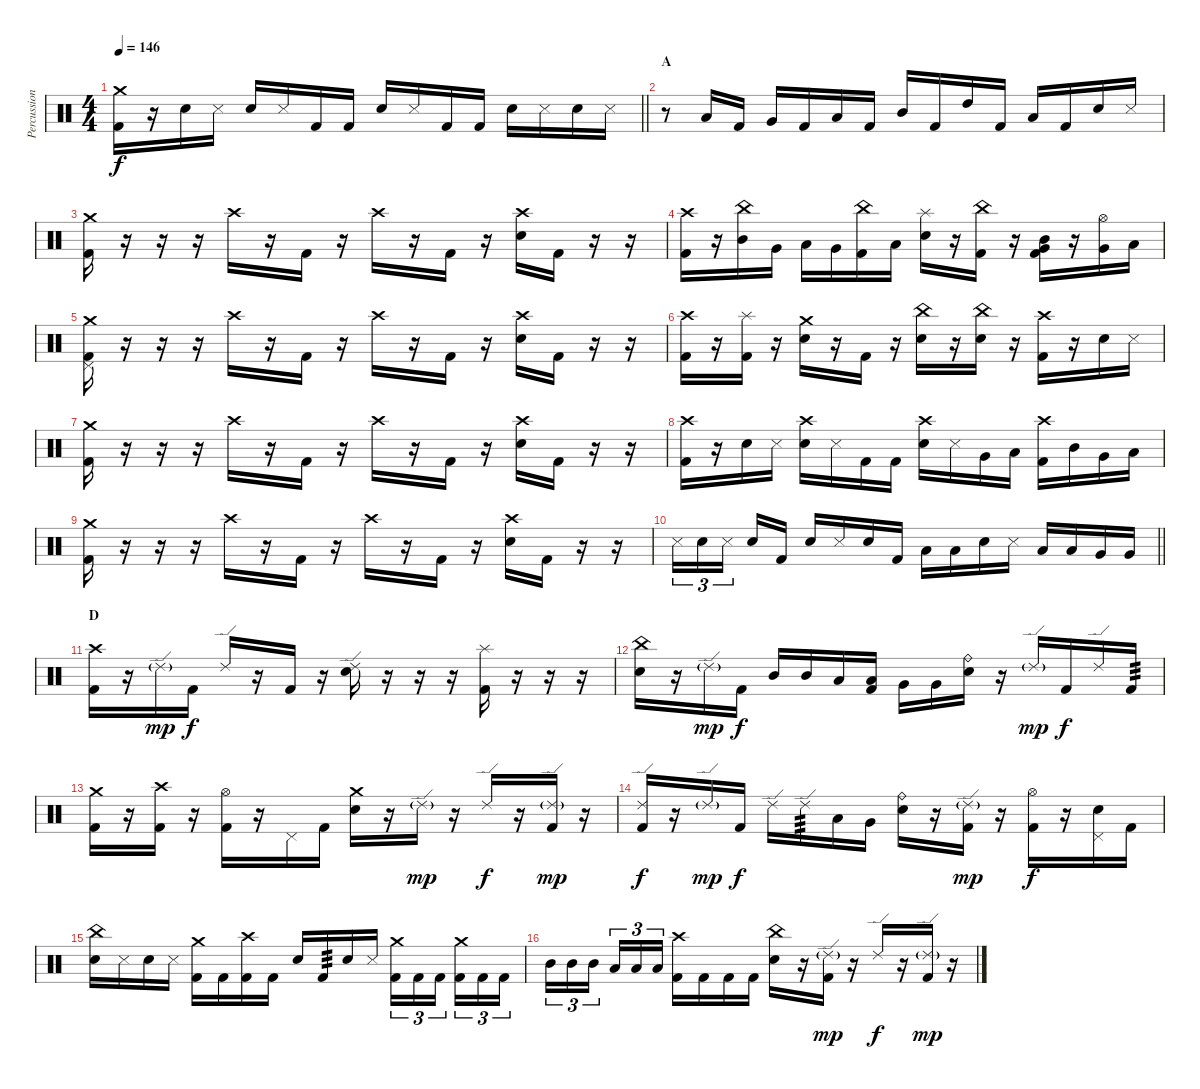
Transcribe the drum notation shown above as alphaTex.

\track ("Percussion" "Percussion") {instrument percussion}
\staff {score}
\articulation defaults
\ts (4 4)
\tempo 146
\clef neutral
\barLineRight lightlight
\ks c
("Crash medium (hit)" "Kick (hit) 2").16{dy f} r.16 "Snare (hit) 2".16 "Metronome (hit)".16 "Snare (hit) 2".16 "Metronome (hit)".16 "Kick (hit) 2".16 "Kick (hit) 2".16 "Snare (hit) 2".16 "Metronome (hit)".16 "Kick (hit) 2".16 "Kick (hit) 2".16 "Snare (hit) 2".16 "Metronome (hit)".16 "Snare (hit) 2".16 "Metronome (hit)".16 |
\section ("" "A")
r.8 "Low Floor Tom (hit)".16 "Kick (hit) 2".16 "Very Low Tom (hit)".16 "Kick (hit) 2".16 "Low Tom (hit)".16 "Kick (hit) 2".16 "Mid Tom (hit)".16 "Kick (hit) 2".16 "High Tom (hit)".16 "Kick (hit) 2".16 "Low Tom (hit)".16 "Kick (hit) 2".16 "Snare (hit) 2".16 "Metronome (hit)".16 |
("Crash medium (hit)" "Kick (hit) 2").16 r.16 r.16 r.16 "Crash high (hit)".16 r.16 "Kick (hit) 2".16 r.16 "Crash high (hit)".16 r.16 "Kick (hit) 2".16 r.16 ("Crash high (hit)" "Snare (hit) 2").16 "Kick (hit) 2".16 r.16 r.16 |
("Crash high (hit)" "Kick (hit) 2").16 r.16 ("China (hit)" "Mid Tom (hit)").16 "Very Low Tom (hit)".16 "Low Tom (hit)".16 "Very Low Tom (hit)".16 ("China (hit)" "Kick (hit) 2").16 "Low Floor Tom (hit)".16 ("Splash (hit)" "Snare (hit) 2").16 r.16 ("China (hit)" "Kick (hit) 2").16 r.16 ("Mid Tom (hit)" "Very Low Tom (hit)" "Kick (hit) 2").16 r.16 ("Hi-Hat (open)" "Very Low Tom (hit)").16 "Low Tom (hit)".16 |
("Crash medium (hit)" "Pedal Hi-Hat (hit)" "Kick (hit) 2").16 r.16 r.16 r.16 "Crash high (hit)".16 r.16 "Kick (hit) 2".16 r.16 "Crash high (hit)".16 r.16 "Kick (hit) 2".16 r.16 ("Crash high (hit)" "Snare (hit) 2").16 "Kick (hit) 2".16 r.16 r.16 |
("Crash high (hit)" "Kick (hit) 2").16 r.16 ("Splash (hit)" "Kick (hit) 2").16 r.16 ("Crash medium (hit)" "Snare (hit) 2").16 r.16 "Kick (hit) 2".16 r.16 ("China (hit)" "Snare (hit) 2").16 r.16 ("China (hit)" "Snare (hit) 2").16 r.16 ("Crash high (hit)" "Kick (hit) 2").16 r.16 "Snare (hit) 2".16 "Metronome (hit)".16 |
("Crash medium (hit)" "Kick (hit) 2").16 r.16 r.16 r.16 "Crash high (hit)".16 r.16 "Kick (hit) 2".16 r.16 "Crash high (hit)".16 r.16 "Kick (hit) 2".16 r.16 ("Crash high (hit)" "Snare (hit) 2").16 "Kick (hit) 2".16 r.16 r.16 |
("Crash high (hit)" "Kick (hit) 2").16 r.16 "Snare (hit) 2".16 "Metronome (hit)".16 ("Crash high (hit)" "Snare (hit) 2").16 "Metronome (hit)".16 "Kick (hit) 2".16 "Kick (hit) 2".16 ("Crash high (hit)" "Snare (hit) 2").16 "Metronome (hit)".16 "Very Low Tom (hit)".16 "Low Tom (hit)".16 ("Crash high (hit)" "Kick (hit) 2").16 "Mid Tom (hit)".16 "Very Low Tom (hit)".16 "Low Floor Tom (hit)".16 |
("Crash medium (hit)" "Kick (hit) 2").16 r.16 r.16 r.16 "Crash high (hit)".16 r.16 "Kick (hit) 2".16 r.16 "Crash high (hit)".16 r.16 "Kick (hit) 2".16 r.16 ("Crash high (hit)" "Snare (hit) 2").16 "Kick (hit) 2".16 r.16 r.16 |
\barLineRight lightlight "Metronome (hit)".16{tu (3 2)} "Snare (hit) 2".16{tu (3 2)} "Metronome (hit)".16{tu (3 2) beam splitsecondary} "Snare (hit) 2".16 "Kick (hit) 2".16 "Snare (hit) 2".16 "Metronome (hit)".16 "Snare (hit) 2".16 "Kick (hit) 2".16 "Low Tom (hit)".16 "Low Floor Tom (hit)".16 "Snare (hit) 2".16 "Metronome (hit)".16 "Low Tom (hit)".16 "Low Floor Tom (hit)".16 "Very Low Tom (hit)".16 "Very Low Tom (hit)".16
|
\section ("" "D")
("Crash high (hit)" "Kick (hit) 2").16 r.16 "Ride (edge) 2"{g}.16{dy mp} "Kick (hit) 2".16{dy f} "Ride (edge) 2".16 r.16 "Kick (hit) 2".16 r.16 ("Ride (edge) 2" "Snare (hit) 2").16 r.16 r.16 r.16 ("Splash (hit)" "Kick (hit) 2").16 r.16 r.16 r.16 |
("China (hit)" "Snare (hit) 2").16 r.16 "Ride (edge) 2"{g}.16{dy mp} "Kick (hit) 2".16{dy f} "Mid Tom (hit)".16 "Mid Tom (hit)".16 "Low Tom (hit)".16 ("Low Tom (hit)" "Kick (hit) 2").16 "Very Low Tom (hit)".16 "Very Low Tom (hit)".16 ("Ride (bell)" "Snare (hit) 2").16 r.16 "Ride (edge) 2"{g}.16{dy mp} "Kick (hit) 2".16{dy f} "Ride (edge) 2".16 "Kick (hit) 2".16{tp 3} |
("Crash medium (hit)" "Kick (hit) 2").16 r.16 ("Crash high (hit)" "Kick (hit) 2").16 r.16 ("Hi-Hat (open)" "Kick (hit) 2").16 r.16 "Pedal Hi-Hat (hit)".16 "Kick (hit) 2".16 ("Crash medium (hit)" "Snare (hit) 2").16 r.16 "Ride (edge) 2"{g}.16{dy mp} r.16 "Ride (edge) 2".16{dy f} r.16 ("Ride (edge) 2"{g} "Kick (hit) 2").16{dy mp} r.16 |
("Ride (edge) 2" "Kick (hit) 2").16{dy f} r.16 "Ride (edge) 2"{g}.16{dy mp} "Kick (hit) 2".16{dy f} "Ride (edge) 2".16 "Ride (edge) 2".16{tp 3} "Low Tom (hit)".16 "Very Low Tom (hit)".16 ("Ride (bell)" "Snare (hit) 2").16 r.16 ("Ride (edge) 2"{g} "Kick (hit) 2").16{dy mp} r.16 ("Hi-Hat (open)" "Kick (hit) 2").16{dy f} r.16 ("Pedal Hi-Hat (hit)" "Snare (hit) 2").16 "Kick (hit) 2".16 |
("China (hit)" "Snare (hit) 2").16 "Metronome (hit)".16 "Snare (hit) 2".16 "Metronome (hit)".16 ("Crash medium (hit)" "Kick (hit) 2").16 "Kick (hit) 2".16 ("Crash high (hit)" "Kick (hit) 2").16 "Kick (hit) 2".16 "Snare (hit) 2".16 "Kick (hit) 2".16{tp 3} "Snare (hit) 2".16 "Metronome (hit)".16 ("Crash medium (hit)" "Kick (hit) 2").16{tu (3 2)} "Kick (hit) 2".16{tu (3 2)} "Kick (hit) 2".16{tu (3 2) beam splitsecondary} ("Crash medium (hit)" "Kick (hit) 2").16{tu (3 2)} "Kick (hit) 2".16{tu (3 2)} "Kick (hit) 2".16{tu (3 2)} |
"Mid Tom (hit)".16{tu (3 2)} "Mid Tom (hit)".16{tu (3 2)} "Mid Tom (hit)".16{tu (3 2) beam splitsecondary} "Low Tom (hit)".16{tu (3 2)} "Low Tom (hit)".16{tu (3 2)} "Low Tom (hit)".16{tu (3 2)} ("Crash high (hit)" "Kick (hit) 2").16 "Kick (hit) 2".16 "Kick (hit) 2".16 "Kick (hit) 2".16 ("China (hit)" "Snare (hit) 2").16 r.16 ("Ride (edge) 2"{g} "Kick (hit) 2").16{dy mp} r.16 "Ride (edge) 2".16{dy f} r.16 ("Ride (edge) 2"{g} "Kick (hit) 2").16{dy mp} r.16
